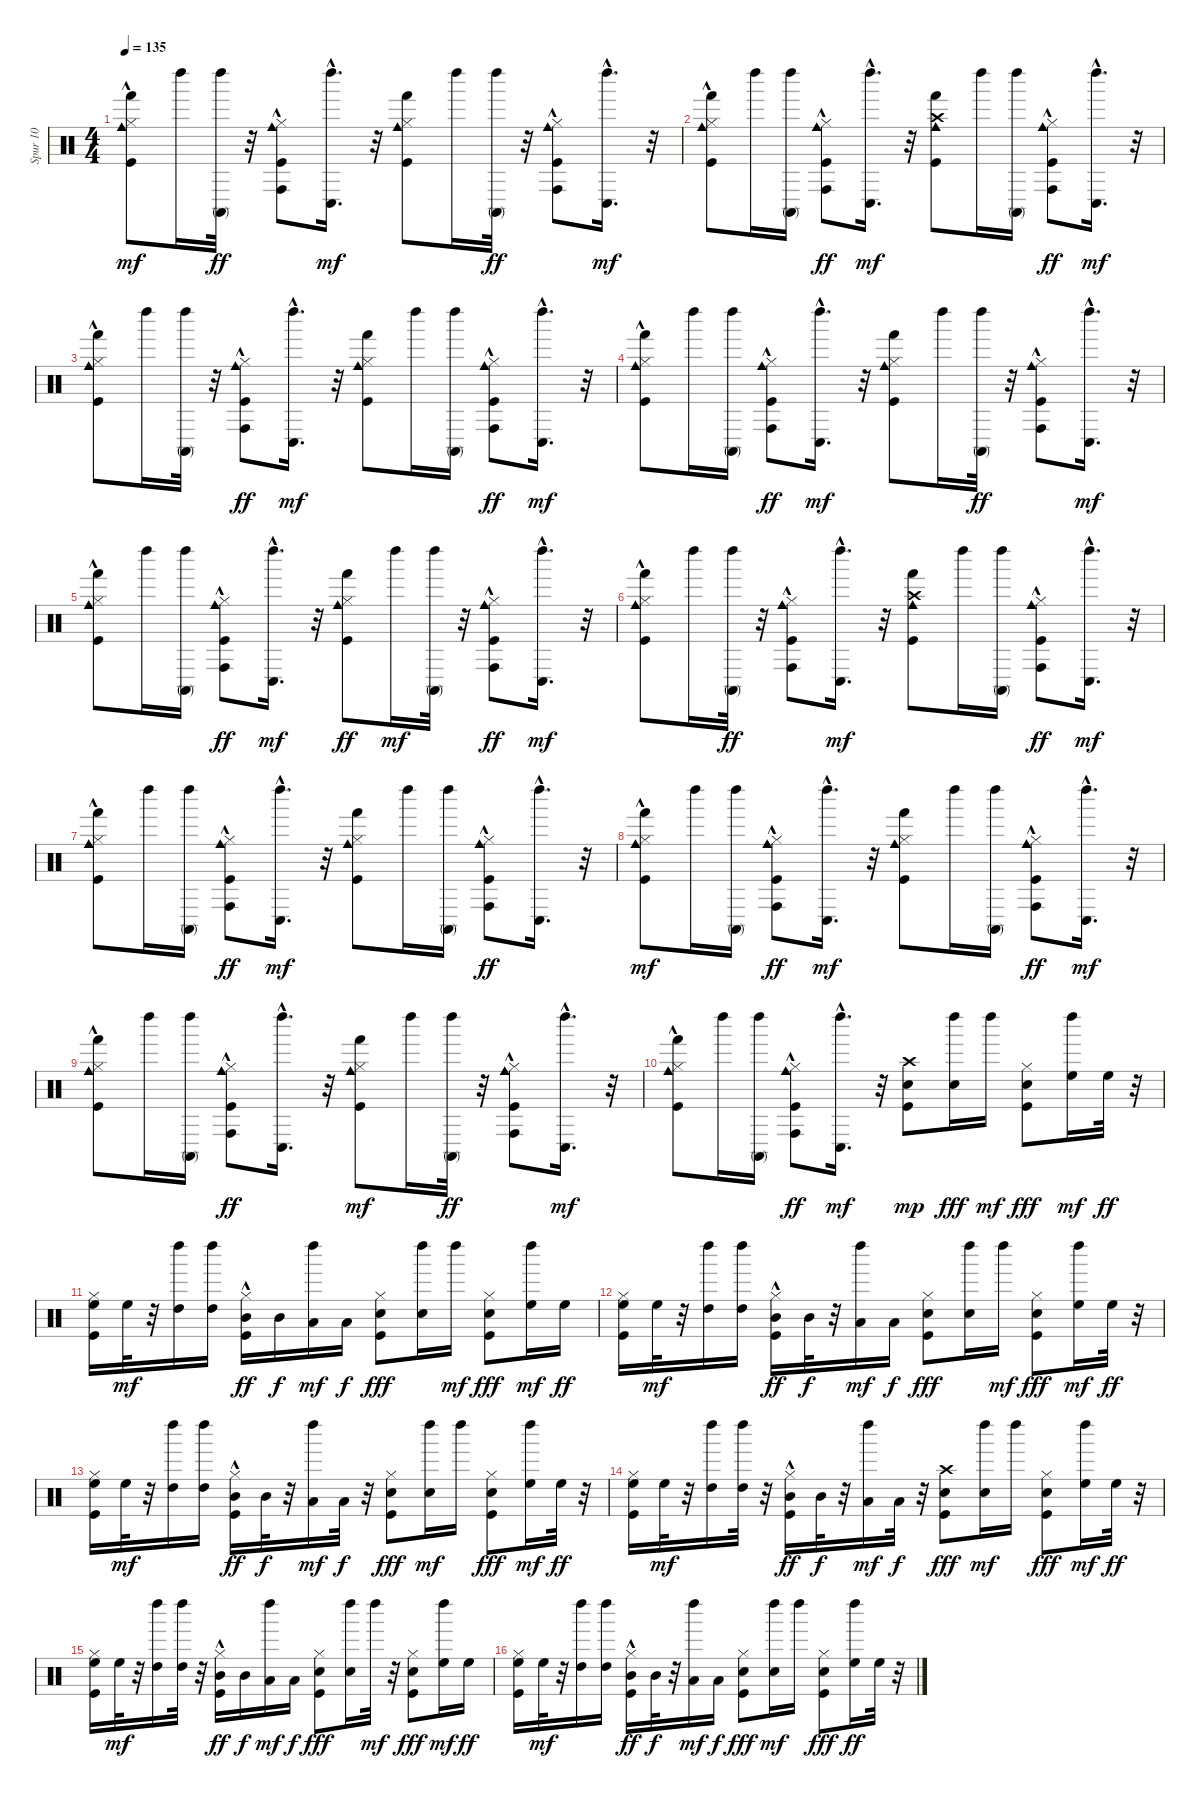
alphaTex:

\track ("Spur 10" "Spur 10") {instrument percussion}
\staff {score}
\articulation defaults
\ts (4 4)
\tempo 135
\clef neutral
\ks c
("Kick (hit)" "Hi-Hat (closed)" "Cowbell medium (hit)" "Hand (hit)"{hac}).8{dy mf} "Left Maraca (hit)".16 ("Left Maraca (hit)" "Conga high (mute)").32{dy ff} r.32 ("Hi-Hat (closed)" "Kick (hit)"{hac} "Cowbell medium (hit)" "Conga high (hit)"{hac}).8 ("Conga low (hit)"{hac} "Left Maraca (hit)").16{d dy mf} r.32 ("Kick (hit)" "Hi-Hat (closed)" "Cowbell medium (hit)" "Hand (hit)").8 "Left Maraca (hit)".16 ("Left Maraca (hit)" "Conga high (mute)").32{dy ff} r.32 ("Hi-Hat (closed)" "Kick (hit)" "Cowbell medium (hit)" "Conga high (hit)"{hac}).8 ("Conga low (hit)"{hac} "Left Maraca (hit)").16{d dy mf} r.32 |
("Kick (hit)" "Hi-Hat (closed)" "Cowbell medium (hit)" "Hand (hit)"{hac}).8 "Left Maraca (hit)".16 ("Conga high (mute)" "Left Maraca (hit)").16 ("Hi-Hat (closed)" "Kick (hit)"{hac} "Cowbell medium (hit)" "Conga high (hit)"{hac}).8{dy ff} ("Conga low (hit)"{hac} "Left Maraca (hit)").16{d dy mf} r.32 ("Kick (hit)" "Crash high (hit)" "Cowbell medium (hit)" "Hand (hit)").8 "Left Maraca (hit)".16 ("Conga high (mute)" "Left Maraca (hit)").16 ("Kick (hit)" "Hi-Hat (closed)" "Cowbell medium (hit)" "Conga high (hit)"{hac}).8{dy ff} ("Conga low (hit)"{hac} "Left Maraca (hit)").16{d dy mf} r.32 |
("Hi-Hat (closed)" "Kick (hit)" "Cowbell medium (hit)" "Hand (hit)"{hac}).8 "Left Maraca (hit)".16 ("Conga high (mute)" "Left Maraca (hit)").32 r.32 ("Kick (hit)"{hac} "Hi-Hat (closed)" "Cowbell medium (hit)" "Conga high (hit)"{hac}).8{dy ff} ("Conga low (hit)"{hac} "Left Maraca (hit)").16{d dy mf} r.32 ("Hi-Hat (closed)" "Kick (hit)" "Cowbell medium (hit)" "Hand (hit)").8 "Left Maraca (hit)".16 ("Conga high (mute)" "Left Maraca (hit)").16 ("Kick (hit)" "Hi-Hat (closed)" "Cowbell medium (hit)" "Conga high (hit)"{hac}).8{dy ff} ("Conga low (hit)"{hac} "Left Maraca (hit)").16{d dy mf} r.32 |
("Kick (hit)" "Hi-Hat (closed)" "Cowbell medium (hit)" "Hand (hit)"{hac}).8 "Left Maraca (hit)".16 ("Conga high (mute)" "Left Maraca (hit)").16 ("Hi-Hat (closed)" "Kick (hit)"{hac} "Cowbell medium (hit)" "Conga high (hit)"{hac}).8{dy ff} ("Conga low (hit)"{hac} "Left Maraca (hit)").16{d dy mf} r.32 ("Kick (hit)" "Hi-Hat (closed)" "Cowbell medium (hit)" "Hand (hit)").8 "Left Maraca (hit)".16 ("Left Maraca (hit)" "Conga high (mute)").32{dy ff} r.32 ("Kick (hit)" "Hi-Hat (closed)" "Cowbell medium (hit)" "Conga high (hit)"{hac}).8 ("Conga low (hit)"{hac} "Left Maraca (hit)").16{d dy mf} r.32 |
("Kick (hit)" "Hi-Hat (closed)" "Cowbell medium (hit)" "Hand (hit)"{hac}).8 "Left Maraca (hit)".16 ("Conga high (mute)" "Left Maraca (hit)").16 ("Kick (hit)"{hac} "Hi-Hat (closed)" "Cowbell medium (hit)" "Conga high (hit)"{hac}).8{dy ff} ("Conga low (hit)"{hac} "Left Maraca (hit)").16{d dy mf} r.32 ("Hi-Hat (closed)" "Cowbell medium (hit)" "Kick (hit)" "Hand (hit)").8{dy ff} "Left Maraca (hit)".16{dy mf} ("Conga high (mute)" "Left Maraca (hit)").32 r.32 ("Kick (hit)" "Hi-Hat (closed)" "Cowbell medium (hit)" "Conga high (hit)"{hac}).8{dy ff} ("Conga low (hit)"{hac} "Left Maraca (hit)").16{d dy mf} r.32 |
("Kick (hit)" "Hi-Hat (closed)" "Cowbell medium (hit)" "Hand (hit)"{hac}).8 "Left Maraca (hit)".16 ("Left Maraca (hit)" "Conga high (mute)").32{dy ff} r.32 ("Kick (hit)"{hac} "Hi-Hat (closed)" "Cowbell medium (hit)" "Conga high (hit)"{hac}).8 ("Conga low (hit)"{hac} "Left Maraca (hit)").16{d dy mf} r.32 ("Kick (hit)" "Crash high (hit)" "Cowbell medium (hit)" "Hand (hit)").8 "Left Maraca (hit)".16 ("Conga high (mute)" "Left Maraca (hit)").16 ("Kick (hit)" "Hi-Hat (closed)" "Cowbell medium (hit)" "Conga high (hit)"{hac}).8{dy ff} ("Conga low (hit)"{hac} "Left Maraca (hit)").16{d dy mf} r.32 |
("Kick (hit)" "Hi-Hat (closed)" "Cowbell medium (hit)" "Hand (hit)"{hac}).8 "Left Maraca (hit)".16 ("Conga high (mute)" "Left Maraca (hit)").16 ("Kick (hit)"{hac} "Hi-Hat (closed)" "Cowbell medium (hit)" "Conga high (hit)"{hac}).8{dy ff} ("Conga low (hit)"{hac} "Left Maraca (hit)").16{d dy mf} r.32 ("Hi-Hat (closed)" "Kick (hit)" "Cowbell medium (hit)" "Hand (hit)").8 "Left Maraca (hit)".16 ("Conga high (mute)" "Left Maraca (hit)").16 ("Kick (hit)" "Hi-Hat (closed)" "Cowbell medium (hit)" "Conga high (hit)"{hac}).8{dy ff} ("Left Maraca (hit)" "Conga low (hit)"{hac}).16{d} r.32 |
("Kick (hit)" "Hi-Hat (closed)" "Cowbell medium (hit)" "Hand (hit)"{hac}).8{dy mf} "Left Maraca (hit)".16 ("Conga high (mute)" "Left Maraca (hit)").16 ("Kick (hit)"{hac} "Hi-Hat (closed)" "Cowbell medium (hit)" "Conga high (hit)"{hac}).8{dy ff} ("Conga low (hit)"{hac} "Left Maraca (hit)").16{d dy mf} r.32 ("Kick (hit)" "Hi-Hat (closed)" "Cowbell medium (hit)" "Hand (hit)").8 "Left Maraca (hit)".16 ("Conga high (mute)" "Left Maraca (hit)").16 ("Kick (hit)" "Hi-Hat (closed)" "Cowbell medium (hit)" "Conga high (hit)"{hac}).8{dy ff} ("Conga low (hit)"{hac} "Left Maraca (hit)").16{d dy mf} r.32 |
("Kick (hit)" "Hi-Hat (closed)" "Cowbell medium (hit)" "Hand (hit)"{hac}).8 "Left Maraca (hit)".16 ("Conga high (mute)" "Left Maraca (hit)").16 ("Kick (hit)"{hac} "Hi-Hat (closed)" "Cowbell medium (hit)" "Conga high (hit)"{hac}).8{dy ff} ("Left Maraca (hit)" "Conga low (hit)"{hac}).16{d} r.32 ("Hi-Hat (closed)" "Kick (hit)" "Cowbell medium (hit)" "Hand (hit)").8{dy mf} "Left Maraca (hit)".16 ("Left Maraca (hit)" "Conga high (mute)").32{dy ff} r.32 ("Hi-Hat (closed)" "Kick (hit)" "Cowbell medium (hit)" "Conga high (hit)"{hac}).8 ("Conga low (hit)"{hac} "Left Maraca (hit)").16{d dy mf} r.32 |
("Kick (hit)" "Hi-Hat (closed)" "Cowbell medium (hit)" "Hand (hit)"{hac}).8 "Left Maraca (hit)".16 ("Conga high (mute)" "Left Maraca (hit)").16 ("Kick (hit)"{hac} "Hi-Hat (closed)" "Cowbell medium (hit)" "Conga high (hit)"{hac}).8{dy ff} ("Conga low (hit)"{hac} "Left Maraca (hit)").16{d dy mf} r.32 ("Kick (hit)" "Hand Clap (hit)" "Crash high (hit)").8{dy mp} ("Left Maraca (hit)" "Hand Clap (hit)").16{dy fff} "Left Maraca (hit)".16{dy mf} ("Hi-Hat (closed)" "Kick (hit)" "Hand Clap (hit)").8{dy fff} ("High Floor Tom (hit)" "Left Maraca (hit)").16{dy mf} "High Floor Tom (hit)".32{dy ff} r.32 |
("Kick (hit)" "Hi-Hat (closed)" "High Floor Tom (hit)").16 "High Floor Tom (hit)".32{dy mf} r.32 ("High Tom (hit)" "Left Maraca (hit)").16 ("High Tom (hit)" "Left Maraca (hit)").16 ("Kick (hit)"{hac} "Hi-Hat (closed)" "Mid Tom (hit)").16{dy ff} "Mid Tom (hit)".16{dy f} ("Left Maraca (hit)" "Low Tom (hit)").16{dy mf} "Low Tom (hit)".16{dy f} ("Kick (hit)" "Hand Clap (hit)" "Hi-Hat (closed)").8{dy fff} ("Left Maraca (hit)" "Hand Clap (hit)").16 "Left Maraca (hit)".16{dy mf} ("Hi-Hat (closed)" "Kick (hit)" "Hand Clap (hit)").8{dy fff} ("High Floor Tom (hit)" "Left Maraca (hit)").16{dy mf} "High Floor Tom (hit)".16{dy ff} |
("Kick (hit)" "Hi-Hat (closed)" "High Floor Tom (hit)").16 "High Floor Tom (hit)".32{dy mf} r.32 ("High Tom (hit)" "Left Maraca (hit)").16 ("High Tom (hit)" "Left Maraca (hit)").16 ("Hi-Hat (closed)" "Kick (hit)"{hac} "Mid Tom (hit)").16{dy ff} "Mid Tom (hit)".32{dy f} r.32 ("Low Tom (hit)" "Left Maraca (hit)").16{dy mf} "Low Tom (hit)".16{dy f} ("Kick (hit)" "Hand Clap (hit)" "Hi-Hat (closed)").8{dy fff} ("Left Maraca (hit)" "Hand Clap (hit)").16 "Left Maraca (hit)".16{dy mf} ("Kick (hit)" "Hand Clap (hit)" "Hi-Hat (closed)").8{dy fff} ("High Floor Tom (hit)" "Left Maraca (hit)").16{dy mf} "High Floor Tom (hit)".32{dy ff} r.32 |
("Kick (hit)" "Hi-Hat (closed)" "High Floor Tom (hit)").16 "High Floor Tom (hit)".32{dy mf} r.32 ("High Tom (hit)" "Left Maraca (hit)").16 ("High Tom (hit)" "Left Maraca (hit)").16 ("Kick (hit)"{hac} "Hi-Hat (closed)" "Mid Tom (hit)").16{dy ff} "Mid Tom (hit)".32{dy f} r.32 ("Low Tom (hit)" "Left Maraca (hit)").16{dy mf} "Low Tom (hit)".32{dy f} r.32 ("Kick (hit)" "Hand Clap (hit)" "Hi-Hat (closed)").8{dy fff} ("Hand Clap (hit)" "Left Maraca (hit)").16{dy mf} "Left Maraca (hit)".16 ("Kick (hit)" "Hand Clap (hit)" "Hi-Hat (closed)").8{dy fff} ("High Floor Tom (hit)" "Left Maraca (hit)").16{dy mf} "High Floor Tom (hit)".32{dy ff} r.32 |
("Kick (hit)" "Hi-Hat (closed)" "High Floor Tom (hit)").16 "High Floor Tom (hit)".32{dy mf} r.32 ("Left Maraca (hit)" "High Tom (hit)").16 ("Left Maraca (hit)" "High Tom (hit)").32 r.32 ("Kick (hit)"{hac} "Hi-Hat (closed)" "Mid Tom (hit)").16{dy ff} "Mid Tom (hit)".32{dy f} r.32 ("Low Tom (hit)" "Left Maraca (hit)").16{dy mf} "Low Tom (hit)".32{dy f} r.32 ("Crash high (hit)" "Kick (hit)" "Hand Clap (hit)").8{dy fff} ("Hand Clap (hit)" "Left Maraca (hit)").16{dy mf} "Left Maraca (hit)".16 ("Kick (hit)" "Hand Clap (hit)" "Hi-Hat (closed)").8{dy fff} ("High Floor Tom (hit)" "Left Maraca (hit)").16{dy mf} "High Floor Tom (hit)".32{dy ff} r.32 |
("Hi-Hat (closed)" "Kick (hit)" "High Floor Tom (hit)").16 "High Floor Tom (hit)".32{dy mf} r.32 ("High Tom (hit)" "Left Maraca (hit)").16 ("High Tom (hit)" "Left Maraca (hit)").32 r.32 ("Kick (hit)"{hac} "Hi-Hat (closed)" "Mid Tom (hit)").16{dy ff} "Mid Tom (hit)".16{dy f} ("Left Maraca (hit)" "Low Tom (hit)").16{dy mf} "Low Tom (hit)".16{dy f} ("Kick (hit)" "Hand Clap (hit)" "Hi-Hat (closed)").8{dy fff} ("Left Maraca (hit)" "Hand Clap (hit)").16 "Left Maraca (hit)".32{dy mf} r.32 ("Kick (hit)" "Hand Clap (hit)" "Hi-Hat (closed)").8{dy fff} ("High Floor Tom (hit)" "Left Maraca (hit)").16{dy mf} "High Floor Tom (hit)".16{dy ff} |
("Kick (hit)" "Hi-Hat (closed)" "High Floor Tom (hit)").16 "High Floor Tom (hit)".32{dy mf} r.32 ("High Tom (hit)" "Left Maraca (hit)").16 ("High Tom (hit)" "Left Maraca (hit)").16 ("Kick (hit)"{hac} "Hi-Hat (closed)" "Mid Tom (hit)").16{dy ff} "Mid Tom (hit)".32{dy f} r.32 ("Low Tom (hit)" "Left Maraca (hit)").16{dy mf} "Low Tom (hit)".16{dy f} ("Kick (hit)" "Hand Clap (hit)" "Hi-Hat (closed)").8{dy fff} ("Hand Clap (hit)" "Left Maraca (hit)").16{dy mf} "Left Maraca (hit)".16 ("Kick (hit)" "Hand Clap (hit)" "Hi-Hat (closed)").8{dy fff} ("Left Maraca (hit)" "High Floor Tom (hit)").16{dy ff} "High Floor Tom (hit)".32 r.32
